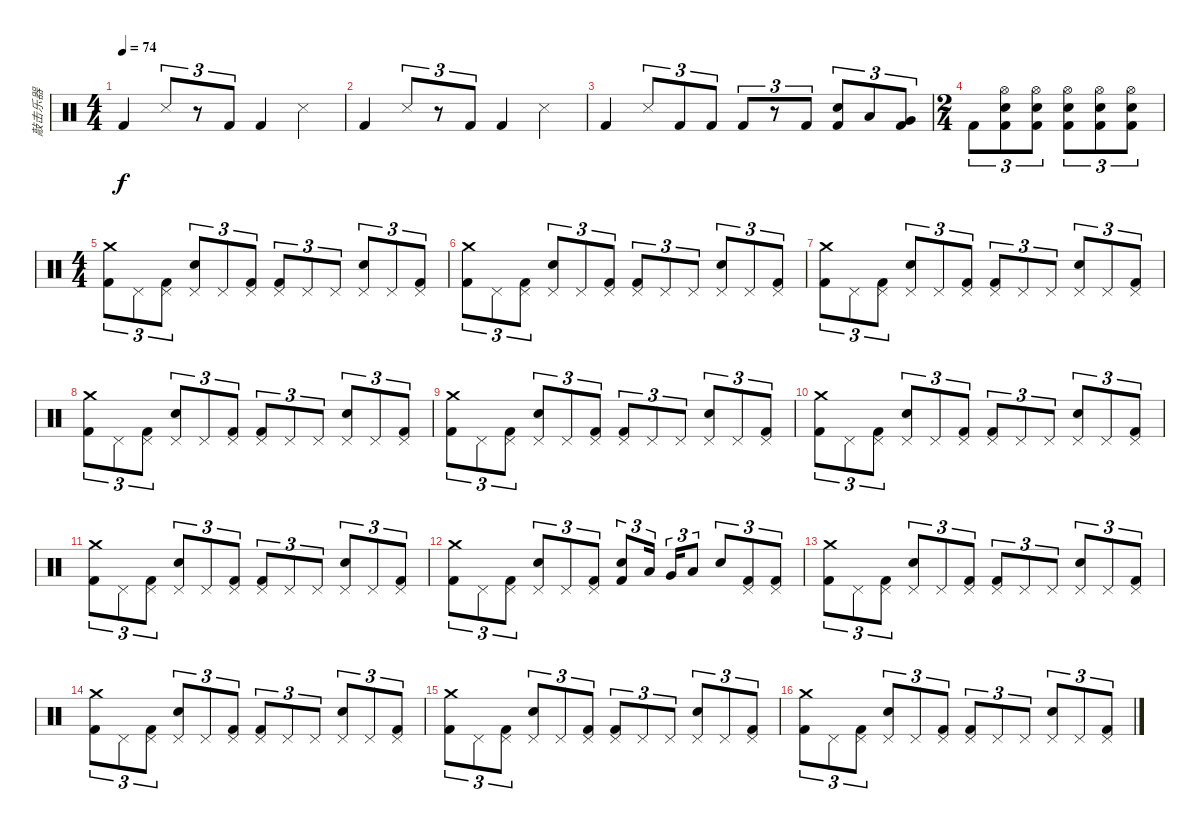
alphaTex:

\track ("敲击乐器" "敲击乐器") {instrument percussion}
\staff {score}
\articulation defaults
\ts (4 4)
\tempo 74
\clef neutral
\ks c "Kick (hit) 2".4{dy f} "Snare (side stick) 3".8{tu (3 2)}
r.8{tu (3 2)} "Kick (hit) 2".8{tu (3 2)} "Kick (hit) 2".4 "Snare (side stick) 3".4 |
"Kick (hit) 2".4 "Snare (side stick) 3".8{tu (3 2)} r.8{tu (3 2)} "Kick (hit) 2".8{tu (3 2)} "Kick (hit) 2".4 "Snare (side stick) 3".4 |
"Kick (hit) 2".4 "Snare (side stick) 3".8{tu (3 2)} "Kick (hit) 2".8{tu (3 2)} "Kick (hit) 2".8{tu (3 2)} "Kick (hit) 2".8{tu (3 2)} r.8{tu (3 2)} "Kick (hit) 2".8{tu (3 2)} ("Electric Snare (hit)" "Kick (hit) 2").8{tu (3 2)} "Low Tom (hit)".8{tu (3 2)} ("Very Low Tom (hit)" "Kick (hit) 2").8{tu (3 2)} |
\ts (2 4)
"Kick (hit) 2".8{tu (3 2)} ("Electric Snare (hit)" "Hi-Hat (open)" "Kick (hit) 2").8{tu (3 2)} ("Electric Snare (hit)" "Hi-Hat (open)" "Kick (hit) 2").8{tu (3 2)} ("Electric Snare (hit)" "Hi-Hat (open)" "Kick (hit) 2").8{tu (3 2)} ("Electric Snare (hit)" "Hi-Hat (open)" "Kick (hit) 2").8{tu (3 2)} ("Electric Snare (hit)" "Hi-Hat (open)" "Kick (hit) 2").8{tu (3 2)} |
\ts (4 4)
("Crash medium (hit)" "Kick (hit) 2").8{tu (3 2)} "Pedal Hi-Hat (hit)".8{tu (3 2)} ("Pedal Hi-Hat (hit)" "Kick (hit) 2").8{tu (3 2)} ("Electric Snare (hit)" "Pedal Hi-Hat (hit)").8{tu (3 2)} "Pedal Hi-Hat (hit)".8{tu (3 2)} ("Pedal Hi-Hat (hit)" "Kick (hit) 2").8{tu (3 2)} ("Pedal Hi-Hat (hit)" "Kick (hit) 2").8{tu (3 2)} "Pedal Hi-Hat (hit)".8{tu (3 2)} "Pedal Hi-Hat (hit)".8{tu (3 2)} ("Electric Snare (hit)" "Pedal Hi-Hat (hit)").8{tu (3 2)} "Pedal Hi-Hat (hit)".8{tu (3 2)} ("Pedal Hi-Hat (hit)" "Kick (hit) 2").8{tu (3 2)} |
("Crash medium (hit)" "Kick (hit) 2").8{tu (3 2)} "Pedal Hi-Hat (hit)".8{tu (3 2)} ("Pedal Hi-Hat (hit)" "Kick (hit) 2").8{tu (3 2)} ("Electric Snare (hit)" "Pedal Hi-Hat (hit)").8{tu (3 2)} "Pedal Hi-Hat (hit)".8{tu (3 2)} ("Pedal Hi-Hat (hit)" "Kick (hit) 2").8{tu (3 2)} ("Pedal Hi-Hat (hit)" "Kick (hit) 2").8{tu (3 2)} "Pedal Hi-Hat (hit)".8{tu (3 2)} "Pedal Hi-Hat (hit)".8{tu (3 2)} ("Electric Snare (hit)" "Pedal Hi-Hat (hit)").8{tu (3 2)} "Pedal Hi-Hat (hit)".8{tu (3 2)} ("Pedal Hi-Hat (hit)" "Kick (hit) 2").8{tu (3 2)} |
("Crash medium (hit)" "Kick (hit) 2").8{tu (3 2)} "Pedal Hi-Hat (hit)".8{tu (3 2)} ("Pedal Hi-Hat (hit)" "Kick (hit) 2").8{tu (3 2)} ("Electric Snare (hit)" "Pedal Hi-Hat (hit)").8{tu (3 2)} "Pedal Hi-Hat (hit)".8{tu (3 2)} ("Pedal Hi-Hat (hit)" "Kick (hit) 2").8{tu (3 2)} ("Pedal Hi-Hat (hit)" "Kick (hit) 2").8{tu (3 2)} "Pedal Hi-Hat (hit)".8{tu (3 2)} "Pedal Hi-Hat (hit)".8{tu (3 2)} ("Electric Snare (hit)" "Pedal Hi-Hat (hit)").8{tu (3 2)} "Pedal Hi-Hat (hit)".8{tu (3 2)} ("Pedal Hi-Hat (hit)" "Kick (hit) 2").8{tu (3 2)} |
("Crash medium (hit)" "Kick (hit) 2").8{tu (3 2)} "Pedal Hi-Hat (hit)".8{tu (3 2)} ("Pedal Hi-Hat (hit)" "Kick (hit) 2").8{tu (3 2)} ("Electric Snare (hit)" "Pedal Hi-Hat (hit)").8{tu (3 2)} "Pedal Hi-Hat (hit)".8{tu (3 2)} ("Pedal Hi-Hat (hit)" "Kick (hit) 2").8{tu (3 2)} ("Pedal Hi-Hat (hit)" "Kick (hit) 2").8{tu (3 2)} "Pedal Hi-Hat (hit)".8{tu (3 2)} "Pedal Hi-Hat (hit)".8{tu (3 2)} ("Electric Snare (hit)" "Pedal Hi-Hat (hit)").8{tu (3 2)} "Pedal Hi-Hat (hit)".8{tu (3 2)} ("Pedal Hi-Hat (hit)" "Kick (hit) 2").8{tu (3 2)} |
("Crash medium (hit)" "Kick (hit) 2").8{tu (3 2)} "Pedal Hi-Hat (hit)".8{tu (3 2)} ("Pedal Hi-Hat (hit)" "Kick (hit) 2").8{tu (3 2)} ("Electric Snare (hit)" "Pedal Hi-Hat (hit)").8{tu (3 2)} "Pedal Hi-Hat (hit)".8{tu (3 2)} ("Pedal Hi-Hat (hit)" "Kick (hit) 2").8{tu (3 2)} ("Pedal Hi-Hat (hit)" "Kick (hit) 2").8{tu (3 2)} "Pedal Hi-Hat (hit)".8{tu (3 2)} "Pedal Hi-Hat (hit)".8{tu (3 2)} ("Electric Snare (hit)" "Pedal Hi-Hat (hit)").8{tu (3 2)} "Pedal Hi-Hat (hit)".8{tu (3 2)} ("Pedal Hi-Hat (hit)" "Kick (hit) 2").8{tu (3 2)} |
("Crash medium (hit)" "Kick (hit) 2").8{tu (3 2)} "Pedal Hi-Hat (hit)".8{tu (3 2)} ("Pedal Hi-Hat (hit)" "Kick (hit) 2").8{tu (3 2)} ("Electric Snare (hit)" "Pedal Hi-Hat (hit)").8{tu (3 2)} "Pedal Hi-Hat (hit)".8{tu (3 2)} ("Pedal Hi-Hat (hit)" "Kick (hit) 2").8{tu (3 2)} ("Pedal Hi-Hat (hit)" "Kick (hit) 2").8{tu (3 2)} "Pedal Hi-Hat (hit)".8{tu (3 2)} "Pedal Hi-Hat (hit)".8{tu (3 2)} ("Electric Snare (hit)" "Pedal Hi-Hat (hit)").8{tu (3 2)} "Pedal Hi-Hat (hit)".8{tu (3 2)} ("Pedal Hi-Hat (hit)" "Kick (hit) 2").8{tu (3 2)} |
("Crash medium (hit)" "Kick (hit) 2").8{tu (3 2)} "Pedal Hi-Hat (hit)".8{tu (3 2)} ("Pedal Hi-Hat (hit)" "Kick (hit) 2").8{tu (3 2)} ("Electric Snare (hit)" "Pedal Hi-Hat (hit)").8{tu (3 2)} "Pedal Hi-Hat (hit)".8{tu (3 2)} ("Pedal Hi-Hat (hit)" "Kick (hit) 2").8{tu (3 2)} ("Pedal Hi-Hat (hit)" "Kick (hit) 2").8{tu (3 2)} "Pedal Hi-Hat (hit)".8{tu (3 2)} "Pedal Hi-Hat (hit)".8{tu (3 2)} ("Electric Snare (hit)" "Pedal Hi-Hat (hit)").8{tu (3 2)} "Pedal Hi-Hat (hit)".8{tu (3 2)} ("Pedal Hi-Hat (hit)" "Kick (hit) 2").8{tu (3 2)} |
("Crash medium (hit)" "Kick (hit) 2").8{tu (3 2)} "Pedal Hi-Hat (hit)".8{tu (3 2)} ("Pedal Hi-Hat (hit)" "Kick (hit) 2").8{tu (3 2)} ("Electric Snare (hit)" "Pedal Hi-Hat (hit)").8{tu (3 2)} "Pedal Hi-Hat (hit)".8{tu (3 2)} ("Pedal Hi-Hat (hit)" "Kick (hit) 2").8{tu (3 2)} ("Electric Snare (hit)" "Kick (hit) 2").8{tu (3 2)} "Low Tom (hit)".16{tu (3 2) beam splitsecondary} "Very Low Tom (hit)".16{tu (3 2)} "Low Floor Tom (hit)".8{tu (3 2)} "Electric Snare (hit)".8{tu (3 2)} ("Pedal Hi-Hat (hit)" "Kick (hit) 2").8{tu (3 2)} ("Pedal Hi-Hat (hit)" "Kick (hit) 2").8{tu (3 2)} |
("Crash medium (hit)" "Kick (hit) 2").8{tu (3 2)} "Pedal Hi-Hat (hit)".8{tu (3 2)} ("Pedal Hi-Hat (hit)" "Kick (hit) 2").8{tu (3 2)} ("Electric Snare (hit)" "Pedal Hi-Hat (hit)").8{tu (3 2)} "Pedal Hi-Hat (hit)".8{tu (3 2)} ("Pedal Hi-Hat (hit)" "Kick (hit) 2").8{tu (3 2)} ("Pedal Hi-Hat (hit)" "Kick (hit) 2").8{tu (3 2)} "Pedal Hi-Hat (hit)".8{tu (3 2)} "Pedal Hi-Hat (hit)".8{tu (3 2)} ("Electric Snare (hit)" "Pedal Hi-Hat (hit)").8{tu (3 2)} "Pedal Hi-Hat (hit)".8{tu (3 2)} ("Pedal Hi-Hat (hit)" "Kick (hit) 2").8{tu (3 2)} |
("Crash medium (hit)" "Kick (hit) 2").8{tu (3 2)} "Pedal Hi-Hat (hit)".8{tu (3 2)} ("Pedal Hi-Hat (hit)" "Kick (hit) 2").8{tu (3 2)} ("Electric Snare (hit)" "Pedal Hi-Hat (hit)").8{tu (3 2)} "Pedal Hi-Hat (hit)".8{tu (3 2)} ("Pedal Hi-Hat (hit)" "Kick (hit) 2").8{tu (3 2)} ("Pedal Hi-Hat (hit)" "Kick (hit) 2").8{tu (3 2)} "Pedal Hi-Hat (hit)".8{tu (3 2)} "Pedal Hi-Hat (hit)".8{tu (3 2)} ("Electric Snare (hit)" "Pedal Hi-Hat (hit)").8{tu (3 2)} "Pedal Hi-Hat (hit)".8{tu (3 2)} ("Pedal Hi-Hat (hit)" "Kick (hit) 2").8{tu (3 2)} |
("Crash medium (hit)" "Kick (hit) 2").8{tu (3 2)} "Pedal Hi-Hat (hit)".8{tu (3 2)} ("Pedal Hi-Hat (hit)" "Kick (hit) 2").8{tu (3 2)} ("Electric Snare (hit)" "Pedal Hi-Hat (hit)").8{tu (3 2)} "Pedal Hi-Hat (hit)".8{tu (3 2)} ("Pedal Hi-Hat (hit)" "Kick (hit) 2").8{tu (3 2)} ("Pedal Hi-Hat (hit)" "Kick (hit) 2").8{tu (3 2)} "Pedal Hi-Hat (hit)".8{tu (3 2)} "Pedal Hi-Hat (hit)".8{tu (3 2)} ("Electric Snare (hit)" "Pedal Hi-Hat (hit)").8{tu (3 2)} "Pedal Hi-Hat (hit)".8{tu (3 2)} ("Pedal Hi-Hat (hit)" "Kick (hit) 2").8{tu (3 2)} |
("Crash medium (hit)" "Kick (hit) 2").8{tu (3 2)} "Pedal Hi-Hat (hit)".8{tu (3 2)} ("Pedal Hi-Hat (hit)" "Kick (hit) 2").8{tu (3 2)} ("Electric Snare (hit)" "Pedal Hi-Hat (hit)").8{tu (3 2)} "Pedal Hi-Hat (hit)".8{tu (3 2)} ("Pedal Hi-Hat (hit)" "Kick (hit) 2").8{tu (3 2)} ("Pedal Hi-Hat (hit)" "Kick (hit) 2").8{tu (3 2)} "Pedal Hi-Hat (hit)".8{tu (3 2)} "Pedal Hi-Hat (hit)".8{tu (3 2)} ("Electric Snare (hit)" "Pedal Hi-Hat (hit)").8{tu (3 2)} "Pedal Hi-Hat (hit)".8{tu (3 2)} ("Pedal Hi-Hat (hit)" "Kick (hit) 2").8{tu (3 2)}
